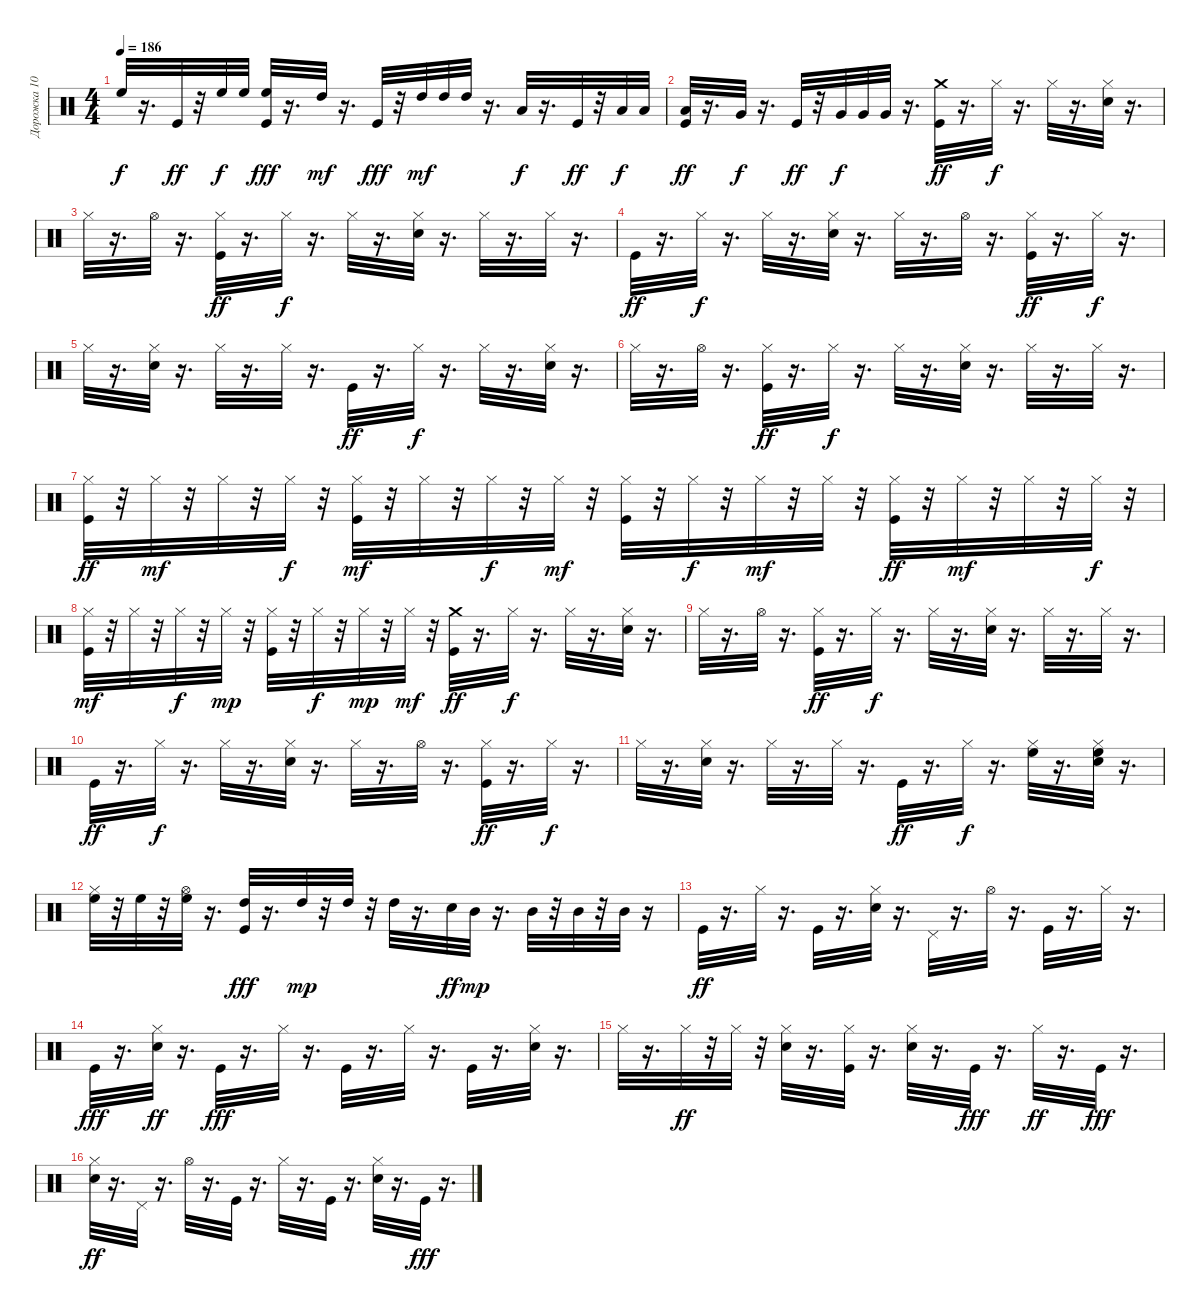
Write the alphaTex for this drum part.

\track ("Дорожка 10" "Дорожка 10") {instrument percussion}
\staff {score}
\articulation defaults
\ts (4 4)
\tempo 186
\clef neutral
\ks c "High Floor Tom (hit)".32{dy f}
r.16{d} "Kick (hit)".32{dy ff} r.32 "High Floor Tom (hit)".32{dy f} "High Floor Tom (hit)".32 ("High Floor Tom (hit)" "Kick (hit)").32{dy fff} r.16{d} "High Tom (hit)".32{dy mf} r.16{d} "Kick (hit)".32{dy fff} r.32 "High Tom (hit)".32{dy mf} "High Tom (hit)".32 "High Tom (hit)".32 r.16{d} "Low Tom (hit)".32{dy f} r.16{d} "Kick (hit)".32{dy ff} r.32 "Low Tom (hit)".32{dy f} "Low Tom (hit)".32 |
("Low Tom (hit)" "Kick (hit)").32{dy ff} r.16{d} "Very Low Tom (hit)".32{dy f} r.16{d} "Kick (hit)".32{dy ff} r.32 "Very Low Tom (hit)".32{dy f} "Very Low Tom (hit)".32 "Very Low Tom (hit)".32 r.16{d} ("Crash medium (hit)" "Kick (hit)").32{dy ff} r.16{d} "Hi-Hat (closed)".32{dy f} r.16{d} "Hi-Hat (closed)".32 r.16{d} ("Hi-Hat (closed)" "Electric Snare (hit)").32 r.16{d} |
"Hi-Hat (closed)".32 r.16{d} "Hi-Hat (open)".32 r.16{d} ("Kick (hit)" "Hi-Hat (closed)").32{dy ff} r.16{d} "Hi-Hat (closed)".32{dy f} r.16{d} "Hi-Hat (closed)".32 r.16{d} ("Electric Snare (hit)" "Hi-Hat (closed)").32 r.16{d} "Hi-Hat (closed)".32 r.16{d} "Hi-Hat (closed)".32 r.16{d} |
"Kick (hit)".32{dy ff} r.16{d} "Hi-Hat (closed)".32{dy f} r.16{d} "Hi-Hat (closed)".32 r.16{d} ("Electric Snare (hit)" "Hi-Hat (closed)").32 r.16{d} "Hi-Hat (closed)".32 r.16{d} "Hi-Hat (open)".32 r.16{d} ("Kick (hit)" "Hi-Hat (closed)").32{dy ff} r.16{d} "Hi-Hat (closed)".32{dy f} r.16{d} |
"Hi-Hat (closed)".32 r.16{d} ("Electric Snare (hit)" "Hi-Hat (closed)").32 r.16{d} "Hi-Hat (closed)".32 r.16{d} "Hi-Hat (closed)".32 r.16{d} "Kick (hit)".32{dy ff} r.16{d} "Hi-Hat (closed)".32{dy f} r.16{d} "Hi-Hat (closed)".32 r.16{d} ("Electric Snare (hit)" "Hi-Hat (closed)").32 r.16{d} |
"Hi-Hat (closed)".32 r.16{d} "Hi-Hat (open)".32 r.16{d} ("Hi-Hat (closed)" "Kick (hit)").32{dy ff} r.16{d} "Hi-Hat (closed)".32{dy f} r.16{d} "Hi-Hat (closed)".32 r.16{d} ("Hi-Hat (closed)" "Electric Snare (hit)").32 r.16{d} "Hi-Hat (closed)".32 r.16{d} "Hi-Hat (closed)".32 r.16{d} |
("Kick (hit)" "Hi-Hat (closed)").32{dy ff} r.32 "Hi-Hat (closed)".32{dy mf} r.32 "Hi-Hat (closed)".32 r.32 "Hi-Hat (closed)".32{dy f} r.32 ("Kick (hit)" "Hi-Hat (closed)").32{dy mf} r.32 "Hi-Hat (closed)".32 r.32 "Hi-Hat (closed)".32{dy f} r.32 "Hi-Hat (closed)".32{dy mf} r.32 ("Hi-Hat (closed)" "Kick (hit)").32 r.32 "Hi-Hat (closed)".32{dy f} r.32 "Hi-Hat (closed)".32{dy mf} r.32 "Hi-Hat (closed)".32 r.32 ("Hi-Hat (closed)" "Kick (hit)").32{dy ff} r.32 "Hi-Hat (closed)".32{dy mf} r.32 "Hi-Hat (closed)".32 r.32 "Hi-Hat (closed)".32{dy f} r.32 |
("Kick (hit)" "Hi-Hat (closed)").32{dy mf} r.32 "Hi-Hat (closed)".32 r.32 "Hi-Hat (closed)".32{dy f} r.32 "Hi-Hat (closed)".32{dy mp} r.32 ("Hi-Hat (closed)" "Kick (hit)").32 r.32 "Hi-Hat (closed)".32{dy f} r.32 "Hi-Hat (closed)".32{dy mp} r.32 "Hi-Hat (closed)".32{dy mf} r.32 ("Crash medium (hit)" "Kick (hit)").32{dy ff} r.16{d} "Hi-Hat (closed)".32{dy f} r.16{d} "Hi-Hat (closed)".32 r.16{d} ("Hi-Hat (closed)" "Electric Snare (hit)").32 r.16{d} |
"Hi-Hat (closed)".32 r.16{d} "Hi-Hat (open)".32 r.16{d} ("Hi-Hat (closed)" "Kick (hit)").32{dy ff} r.16{d} "Hi-Hat (closed)".32{dy f} r.16{d} "Hi-Hat (closed)".32 r.16{d} ("Electric Snare (hit)" "Hi-Hat (closed)").32 r.16{d} "Hi-Hat (closed)".32 r.16{d} "Hi-Hat (closed)".32 r.16{d} |
"Kick (hit)".32{dy ff} r.16{d} "Hi-Hat (closed)".32{dy f} r.16{d} "Hi-Hat (closed)".32 r.16{d} ("Electric Snare (hit)" "Hi-Hat (closed)").32 r.16{d} "Hi-Hat (closed)".32 r.16{d} "Hi-Hat (open)".32 r.16{d} ("Hi-Hat (closed)" "Kick (hit)").32{dy ff} r.16{d} "Hi-Hat (closed)".32{dy f} r.16{d} |
"Hi-Hat (closed)".32 r.16{d} ("Hi-Hat (closed)" "Electric Snare (hit)").32 r.16{d} "Hi-Hat (closed)".32 r.16{d} "Hi-Hat (closed)".32 r.16{d} "Kick (hit)".32{dy ff} r.16{d} "Hi-Hat (closed)".32{dy f} r.16{d} ("Hi-Hat (closed)" "High Floor Tom (hit)").32 r.16{d} ("Electric Snare (hit)" "Hi-Hat (closed)" "High Floor Tom (hit)").32 r.16{d} |
("High Floor Tom (hit)" "Hi-Hat (closed)").32 r.32 "High Floor Tom (hit)".32 r.32 ("Hi-Hat (open)" "High Floor Tom (hit)").32 r.16{d} ("High Tom (hit)" "Kick (hit)").32{dy fff} r.16{d} "High Tom (hit)".32{dy mp} r.32 "High Tom (hit)".32 r.32 "High Tom (hit)".32 r.16{d} "Electric Snare (hit)".32{dy ff} "Mid Tom (hit)".32{dy mp} r.16{d} "Mid Tom (hit)".32 r.32 "Mid Tom (hit)".32 r.32 "Mid Tom (hit)".32 r.16 |
"Kick (hit)".32{dy ff} r.16{d} "Hi-Hat (closed)".32 r.16{d} "Kick (hit)".32 r.16{d} ("Electric Snare (hit)" "Hi-Hat (closed)").32 r.16{d} "Pedal Hi-Hat (hit)".32 r.16{d} "Hi-Hat (open)".32 r.16{d} "Kick (hit)".32 r.16{d} "Hi-Hat (closed)".32 r.16{d} |
"Kick (hit)".32{dy fff} r.16{d} ("Hi-Hat (closed)" "Electric Snare (hit)").32{dy ff} r.16{d} "Kick (hit)".32{dy fff} r.16{d} "Hi-Hat (closed)".32 r.16{d} "Kick (hit)".32 r.16{d} "Hi-Hat (closed)".32 r.16{d} "Kick (hit)".32 r.16{d} ("Electric Snare (hit)" "Hi-Hat (closed)").32 r.16{d} |
"Hi-Hat (closed)".32 r.16{d} "Hi-Hat (closed)".32{dy ff} r.32 "Hi-Hat (closed)".32 r.32 ("Hi-Hat (closed)" "Electric Snare (hit)").32 r.16{d} ("Kick (hit)" "Hi-Hat (closed)").32 r.16{d} ("Electric Snare (hit)" "Hi-Hat (closed)").32 r.16{d} "Kick (hit)".32{dy fff} r.16{d} "Hi-Hat (closed)".32{dy ff} r.16{d} "Kick (hit)".32{dy fff} r.16{d} |
("Hi-Hat (closed)" "Electric Snare (hit)").32{dy ff} r.16{d} "Pedal Hi-Hat (hit)".32 r.16{d} "Hi-Hat (open)".32 r.16{d} "Kick (hit)".32 r.16{d} "Hi-Hat (closed)".32 r.16{d} "Kick (hit)".32 r.16{d} ("Hi-Hat (closed)" "Electric Snare (hit)").32 r.16{d} "Kick (hit)".32{dy fff} r.16{d}
